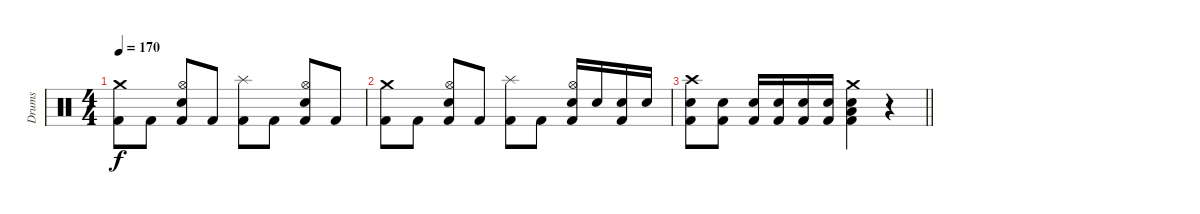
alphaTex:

\track ("Drums" "Drums") {instrument percussion}
\staff {score}
\articulation defaults
\ts (4 4)
\tempo 170
\clef neutral
\ks c
("Crash medium (hit)" "Kick (hit) 2").8{dy f} "Kick (hit) 2".8 ("Hi-Hat (open)" "Snare (hit) 2" "Kick (hit) 2").8 "Kick (hit) 2".8 ("Splash (hit)" "Kick (hit) 2").8 "Kick (hit) 2".8 ("Hi-Hat (open)" "Snare (hit) 2" "Kick (hit) 2").8 "Kick (hit) 2".8 |
("Crash medium (hit)" "Kick (hit) 2").8 "Kick (hit) 2".8 ("Hi-Hat (open)" "Snare (hit) 2" "Kick (hit) 2").8 "Kick (hit) 2".8 ("Splash (hit)" "Kick (hit) 2").8 "Kick (hit) 2".8 ("Hi-Hat (open)" "Snare (hit) 2" "Kick (hit) 2").16 "Snare (hit) 2".16 ("Snare (hit) 2" "Kick (hit) 2").16 "Snare (hit) 2".16 |
\barLineRight lightlight
("Crash high (hit)" "Snare (hit) 2" "Kick (hit) 2").8 ("Snare (hit) 2" "Kick (hit) 2").8 ("Snare (hit) 2" "Kick (hit) 2").16 ("Snare (hit) 2" "Kick (hit) 2").16 ("Snare (hit) 2" "Kick (hit) 2").16 ("Snare (hit) 2" "Kick (hit) 2").16 ("Crash medium (hit)" "Low Floor Tom (hit)" "Snare (hit) 2" "Kick (hit) 2").4 r.4
